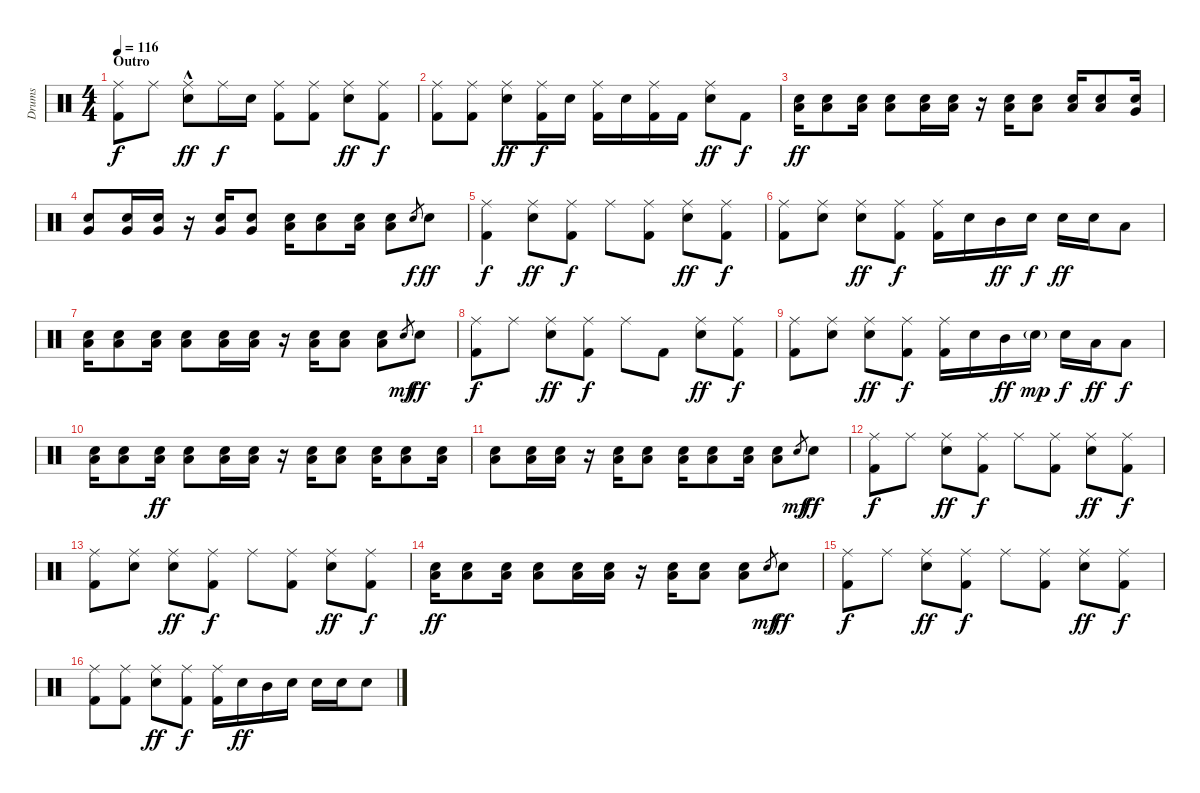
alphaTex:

\track ("Drums" "Drums") {instrument percussion}
\staff {score}
\articulation defaults
\ts (4 4)
\section ("" "Outro")
\tempo 116
\clef neutral
\ks c
("Ride (middle)" "Kick (hit) 2").8{dy f} "Ride (middle)".8 ("Ride (middle)" "Electric Snare (hit)"{hac}).8{dy ff} "Ride (middle)".16{dy f} "Electric Snare (hit)".16 ("Ride (middle)" "Kick (hit) 2").8 ("Ride (middle)" "Kick (hit) 2").8 ("Ride (middle)" "Electric Snare (hit)").8{dy ff} ("Ride (middle)" "Kick (hit) 2").8{dy f} |
("Ride (middle)" "Kick (hit) 2").8 ("Ride (middle)" "Kick (hit) 2").8 ("Ride (middle)" "Electric Snare (hit)").8{dy ff} ("Ride (middle)" "Kick (hit) 2").16{dy f} "Electric Snare (hit)".16 ("Ride (middle)" "Kick (hit) 2").16 "Electric Snare (hit)".16 ("Ride (middle)" "Kick (hit) 2").16 "Kick (hit) 2".16 ("Ride (middle)" "Electric Snare (hit)").8{dy ff} "Kick (hit) 2".8{dy f} |
("Low Tom (hit)" "Electric Snare (hit)").16{dy ff} ("Low Tom (hit)" "Electric Snare (hit)").8 ("Low Tom (hit)" "Electric Snare (hit)").16 ("Low Tom (hit)" "Electric Snare (hit)").8 ("Low Tom (hit)" "Electric Snare (hit)").16 ("Low Tom (hit)" "Electric Snare (hit)").16 r.16 ("Low Tom (hit)" "Electric Snare (hit)").16 ("Low Tom (hit)" "Electric Snare (hit)").8 ("Low Tom (hit)" "Electric Snare (hit)").16 ("Low Tom (hit)" "Electric Snare (hit)").8 ("Electric Snare (hit)" "Very Low Tom (hit)").16 |
("Electric Snare (hit)" "Very Low Tom (hit)").8 ("Electric Snare (hit)" "Very Low Tom (hit)").16 ("Electric Snare (hit)" "Very Low Tom (hit)").16 r.16 ("Electric Snare (hit)" "Very Low Tom (hit)").16 ("Electric Snare (hit)" "Very Low Tom (hit)").8 ("Electric Snare (hit)" "Low Floor Tom (hit)").16 ("Electric Snare (hit)" "Low Floor Tom (hit)").8 ("Electric Snare (hit)" "Low Floor Tom (hit)").16 ("Electric Snare (hit)" "Low Floor Tom (hit)").8 "Electric Snare (hit)"{h}.8{gr dy f} "Electric Snare (hit)".8{dy ff} |
("Ride (middle)" "Kick (hit) 2").4{dy f} ("Ride (middle)" "Electric Snare (hit)").8{dy ff} ("Ride (middle)" "Kick (hit) 2").8{dy f} "Ride (middle)".8 ("Ride (middle)" "Kick (hit) 2").8 ("Ride (middle)" "Electric Snare (hit)").8{dy ff} ("Ride (middle)" "Kick (hit) 2").8{dy f} |
("Ride (middle)" "Kick (hit) 2").8 ("Ride (middle)" "Electric Snare (hit)").8 ("Ride (middle)" "Electric Snare (hit)").8{dy ff} ("Ride (middle)" "Kick (hit) 2").8{dy f} ("Ride (middle)" "Kick (hit) 2").16 "Electric Snare (hit)".16 "Mid Tom (hit)".16{dy ff} "Electric Snare (hit)".16{dy f} "Electric Snare (hit)".16{dy ff} "Electric Snare (hit)".16 "Low Tom (hit)".8 |
("Low Tom (hit)" "Electric Snare (hit)").16 ("Low Tom (hit)" "Electric Snare (hit)").8 ("Low Tom (hit)" "Electric Snare (hit)").16 ("Low Tom (hit)" "Electric Snare (hit)").8 ("Low Tom (hit)" "Electric Snare (hit)").16 ("Low Tom (hit)" "Electric Snare (hit)").16 r.16 ("Low Tom (hit)" "Electric Snare (hit)").16 ("Low Tom (hit)" "Electric Snare (hit)").8 ("Low Tom (hit)" "Electric Snare (hit)").8 "Electric Snare (hit)".8{gr dy mf} "Electric Snare (hit)".8{dy ff} |
("Ride (middle)" "Kick (hit) 2").8{dy f} "Ride (middle)".8 ("Ride (middle)" "Electric Snare (hit)").8{dy ff} ("Ride (middle)" "Kick (hit) 2").8{dy f} "Ride (middle)".8 "Kick (hit) 2".8 ("Ride (middle)" "Electric Snare (hit)").8{dy ff} ("Ride (middle)" "Kick (hit) 2").8{dy f} |
("Ride (middle)" "Kick (hit) 2").8 ("Ride (middle)" "Electric Snare (hit)").8 ("Ride (middle)" "Electric Snare (hit)").8{dy ff} ("Ride (middle)" "Kick (hit) 2").8{dy f} ("Ride (middle)" "Kick (hit) 2").16 "Electric Snare (hit)".16 "Mid Tom (hit)".16{dy ff} "Electric Snare (hit)"{g}.16{dy mp} "Electric Snare (hit)".16{dy f} "Low Tom (hit)".16{dy ff} "Low Tom (hit)".8{dy f} |
("Low Tom (hit)" "Electric Snare (hit)").16{volume 12} ("Low Tom (hit)" "Electric Snare (hit)").8 ("Low Tom (hit)" "Electric Snare (hit)").16{dy ff} ("Low Tom (hit)" "Electric Snare (hit)").8 ("Low Tom (hit)" "Electric Snare (hit)").16 ("Low Tom (hit)" "Electric Snare (hit)").16 r.16 ("Low Tom (hit)" "Electric Snare (hit)").16 ("Low Tom (hit)" "Electric Snare (hit)").8 ("Low Tom (hit)" "Electric Snare (hit)").16 ("Low Tom (hit)" "Electric Snare (hit)").8 ("Low Tom (hit)" "Electric Snare (hit)").16 |
("Low Tom (hit)" "Electric Snare (hit)").8 ("Low Tom (hit)" "Electric Snare (hit)").16 ("Low Tom (hit)" "Electric Snare (hit)").16 r.16 ("Low Tom (hit)" "Electric Snare (hit)").16 ("Low Tom (hit)" "Electric Snare (hit)").8 ("Low Tom (hit)" "Electric Snare (hit)").16 ("Low Tom (hit)" "Electric Snare (hit)").8 ("Low Tom (hit)" "Electric Snare (hit)").16 ("Low Tom (hit)" "Electric Snare (hit)").8 "Electric Snare (hit)".8{gr dy mf} "Electric Snare (hit)".8{dy ff} |
("Ride (middle)" "Kick (hit) 2").8{dy f} "Ride (middle)".8 ("Ride (middle)" "Electric Snare (hit)").8{dy ff} ("Ride (middle)" "Kick (hit) 2").8{dy f} "Ride (middle)".8 ("Ride (middle)" "Kick (hit) 2").8 ("Ride (middle)" "Electric Snare (hit)").8{dy ff} ("Ride (middle)" "Kick (hit) 2").8{dy f} |
("Ride (middle)" "Kick (hit) 2").8{volume 9} ("Ride (middle)" "Electric Snare (hit)").8 ("Ride (middle)" "Electric Snare (hit)").8{dy ff} ("Ride (middle)" "Kick (hit) 2").8{dy f} "Ride (middle)".8 ("Ride (middle)" "Kick (hit) 2").8 ("Ride (middle)" "Electric Snare (hit)").8{dy ff} ("Ride (middle)" "Kick (hit) 2").8{dy f} |
("Low Tom (hit)" "Electric Snare (hit)").16{dy ff} ("Low Tom (hit)" "Electric Snare (hit)").8 ("Low Tom (hit)" "Electric Snare (hit)").16 ("Low Tom (hit)" "Electric Snare (hit)").8 ("Low Tom (hit)" "Electric Snare (hit)").16 ("Low Tom (hit)" "Electric Snare (hit)").16 r.16 ("Low Tom (hit)" "Electric Snare (hit)").16 ("Low Tom (hit)" "Electric Snare (hit)").8 ("Low Tom (hit)" "Electric Snare (hit)").8 "Electric Snare (hit)".8{gr dy mf} "Electric Snare (hit)".8{dy ff} |
("Ride (middle)" "Kick (hit) 2").8{dy f volume 6} "Ride (middle)".8 ("Ride (middle)" "Electric Snare (hit)").8{dy ff} ("Ride (middle)" "Kick (hit) 2").8{dy f} "Ride (middle)".8 ("Ride (middle)" "Kick (hit) 2").8 ("Ride (middle)" "Electric Snare (hit)").8{dy ff} ("Ride (middle)" "Kick (hit) 2").8{dy f} |
("Ride (middle)" "Kick (hit) 2").8 ("Ride (middle)" "Kick (hit) 2").8 ("Ride (middle)" "Electric Snare (hit)").8{dy ff} ("Ride (middle)" "Kick (hit) 2").8{dy f} ("Ride (middle)" "Kick (hit) 2").16 "Electric Snare (hit)".16{dy ff} "Mid Tom (hit)".16 "Electric Snare (hit)".16 "Electric Snare (hit)".16 "Electric Snare (hit)".16 "Electric Snare (hit)".8
